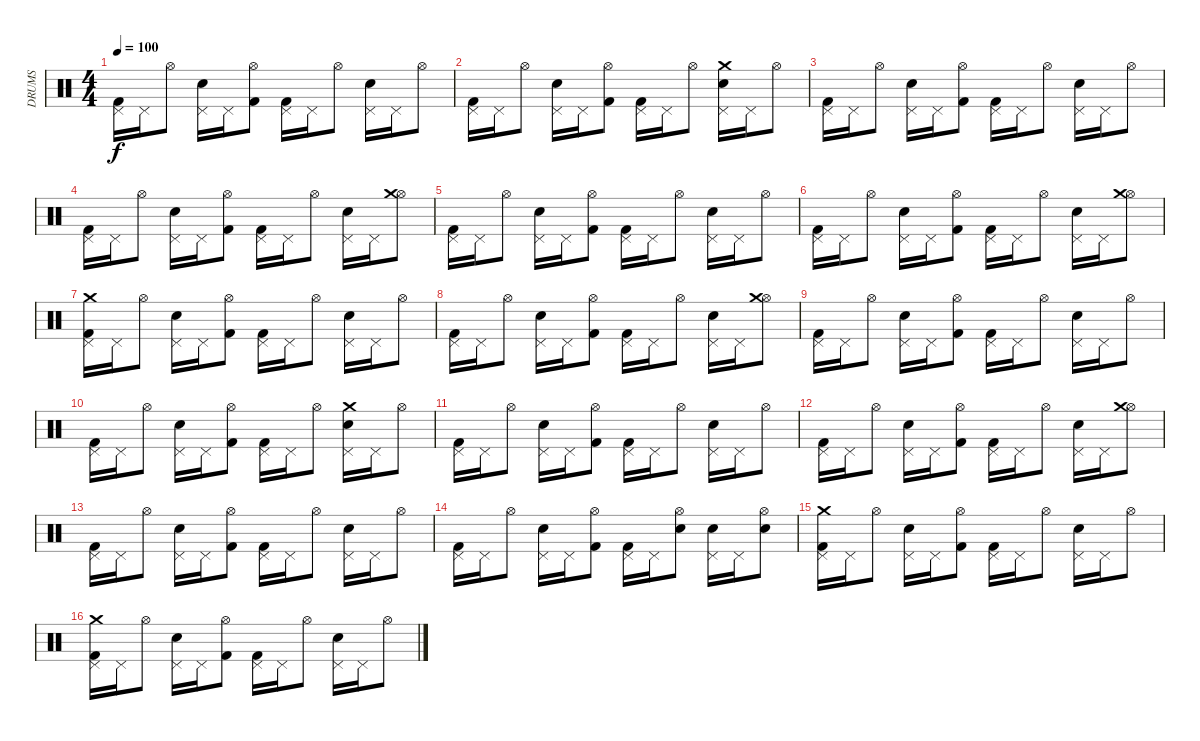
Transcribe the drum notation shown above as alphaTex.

\track ("DRUMS" "DRUMS") {instrument percussion}
\staff {score}
\articulation defaults
\ts (4 4)
\tempo 100
\clef neutral
\ks c
("Kick (hit) 2" "Pedal Hi-Hat (hit)").16{dy f} "Pedal Hi-Hat (hit)".16 "Hi-Hat (open)".8 ("Electric Snare (hit)" "Pedal Hi-Hat (hit)").16 "Pedal Hi-Hat (hit)".16 ("Kick (hit) 2" "Hi-Hat (open)").8 ("Kick (hit) 2" "Pedal Hi-Hat (hit)").16 "Pedal Hi-Hat (hit)".16 "Hi-Hat (open)".8 ("Electric Snare (hit)" "Pedal Hi-Hat (hit)").16 "Pedal Hi-Hat (hit)".16 "Hi-Hat (open)".8 |
("Kick (hit) 2" "Pedal Hi-Hat (hit)").16 "Pedal Hi-Hat (hit)".16 "Hi-Hat (open)".8 ("Electric Snare (hit)" "Pedal Hi-Hat (hit)").16 "Pedal Hi-Hat (hit)".16 ("Kick (hit) 2" "Hi-Hat (open)").8 ("Kick (hit) 2" "Pedal Hi-Hat (hit)").16 "Pedal Hi-Hat (hit)".16 "Hi-Hat (open)".8 ("Electric Snare (hit)" "Pedal Hi-Hat (hit)" "Crash medium (hit)").16 "Pedal Hi-Hat (hit)".16 "Hi-Hat (open)".8 |
("Kick (hit) 2" "Pedal Hi-Hat (hit)").16 "Pedal Hi-Hat (hit)".16 "Hi-Hat (open)".8 ("Electric Snare (hit)" "Pedal Hi-Hat (hit)").16 "Pedal Hi-Hat (hit)".16 ("Kick (hit) 2" "Hi-Hat (open)").8 ("Kick (hit) 2" "Pedal Hi-Hat (hit)").16 "Pedal Hi-Hat (hit)".16 "Hi-Hat (open)".8 ("Electric Snare (hit)" "Pedal Hi-Hat (hit)").16 "Pedal Hi-Hat (hit)".16 "Hi-Hat (open)".8 |
("Kick (hit) 2" "Pedal Hi-Hat (hit)").16 "Pedal Hi-Hat (hit)".16 "Hi-Hat (open)".8 ("Electric Snare (hit)" "Pedal Hi-Hat (hit)").16 "Pedal Hi-Hat (hit)".16 ("Kick (hit) 2" "Hi-Hat (open)").8 ("Kick (hit) 2" "Pedal Hi-Hat (hit)").16 "Pedal Hi-Hat (hit)".16 "Hi-Hat (open)".8 ("Electric Snare (hit)" "Pedal Hi-Hat (hit)").16 "Pedal Hi-Hat (hit)".16 ("Hi-Hat (open)" "Crash medium (hit)").8 |
("Kick (hit) 2" "Pedal Hi-Hat (hit)").16 "Pedal Hi-Hat (hit)".16 "Hi-Hat (open)".8 ("Electric Snare (hit)" "Pedal Hi-Hat (hit)").16 "Pedal Hi-Hat (hit)".16 ("Kick (hit) 2" "Hi-Hat (open)").8 ("Kick (hit) 2" "Pedal Hi-Hat (hit)").16 "Pedal Hi-Hat (hit)".16 "Hi-Hat (open)".8 ("Electric Snare (hit)" "Pedal Hi-Hat (hit)").16 "Pedal Hi-Hat (hit)".16 "Hi-Hat (open)".8 |
("Kick (hit) 2" "Pedal Hi-Hat (hit)").16 "Pedal Hi-Hat (hit)".16 "Hi-Hat (open)".8 ("Electric Snare (hit)" "Pedal Hi-Hat (hit)").16 "Pedal Hi-Hat (hit)".16 ("Kick (hit) 2" "Hi-Hat (open)").8 ("Kick (hit) 2" "Pedal Hi-Hat (hit)").16 "Pedal Hi-Hat (hit)".16 "Hi-Hat (open)".8 ("Electric Snare (hit)" "Pedal Hi-Hat (hit)").16 "Pedal Hi-Hat (hit)".16 ("Hi-Hat (open)" "Crash medium (hit)").8 |
("Kick (hit) 2" "Pedal Hi-Hat (hit)" "Crash medium (hit)").16 "Pedal Hi-Hat (hit)".16 "Hi-Hat (open)".8 ("Electric Snare (hit)" "Pedal Hi-Hat (hit)").16 "Pedal Hi-Hat (hit)".16 ("Kick (hit) 2" "Hi-Hat (open)").8 ("Kick (hit) 2" "Pedal Hi-Hat (hit)").16 "Pedal Hi-Hat (hit)".16 "Hi-Hat (open)".8 ("Electric Snare (hit)" "Pedal Hi-Hat (hit)").16 "Pedal Hi-Hat (hit)".16 "Hi-Hat (open)".8 |
("Kick (hit) 2" "Pedal Hi-Hat (hit)").16 "Pedal Hi-Hat (hit)".16 "Hi-Hat (open)".8 ("Electric Snare (hit)" "Pedal Hi-Hat (hit)").16 "Pedal Hi-Hat (hit)".16 ("Kick (hit) 2" "Hi-Hat (open)").8 ("Kick (hit) 2" "Pedal Hi-Hat (hit)").16 "Pedal Hi-Hat (hit)".16 "Hi-Hat (open)".8 ("Electric Snare (hit)" "Pedal Hi-Hat (hit)").16 "Pedal Hi-Hat (hit)".16 ("Hi-Hat (open)" "Crash medium (hit)").8 |
("Kick (hit) 2" "Pedal Hi-Hat (hit)").16 "Pedal Hi-Hat (hit)".16 "Hi-Hat (open)".8 ("Electric Snare (hit)" "Pedal Hi-Hat (hit)").16 "Pedal Hi-Hat (hit)".16 ("Kick (hit) 2" "Hi-Hat (open)").8 ("Kick (hit) 2" "Pedal Hi-Hat (hit)").16 "Pedal Hi-Hat (hit)".16 "Hi-Hat (open)".8 ("Electric Snare (hit)" "Pedal Hi-Hat (hit)").16 "Pedal Hi-Hat (hit)".16 "Hi-Hat (open)".8 |
("Kick (hit) 2" "Pedal Hi-Hat (hit)").16 "Pedal Hi-Hat (hit)".16 "Hi-Hat (open)".8 ("Electric Snare (hit)" "Pedal Hi-Hat (hit)").16 "Pedal Hi-Hat (hit)".16 ("Kick (hit) 2" "Hi-Hat (open)").8 ("Kick (hit) 2" "Pedal Hi-Hat (hit)").16 "Pedal Hi-Hat (hit)".16 "Hi-Hat (open)".8 ("Electric Snare (hit)" "Pedal Hi-Hat (hit)" "Crash medium (hit)").16 "Pedal Hi-Hat (hit)".16 "Hi-Hat (open)".8 |
("Kick (hit) 2" "Pedal Hi-Hat (hit)").16 "Pedal Hi-Hat (hit)".16 "Hi-Hat (open)".8 ("Electric Snare (hit)" "Pedal Hi-Hat (hit)").16 "Pedal Hi-Hat (hit)".16 ("Kick (hit) 2" "Hi-Hat (open)").8 ("Kick (hit) 2" "Pedal Hi-Hat (hit)").16 "Pedal Hi-Hat (hit)".16 "Hi-Hat (open)".8 ("Electric Snare (hit)" "Pedal Hi-Hat (hit)").16 "Pedal Hi-Hat (hit)".16 "Hi-Hat (open)".8 |
("Kick (hit) 2" "Pedal Hi-Hat (hit)").16 "Pedal Hi-Hat (hit)".16 "Hi-Hat (open)".8 ("Electric Snare (hit)" "Pedal Hi-Hat (hit)").16 "Pedal Hi-Hat (hit)".16 ("Kick (hit) 2" "Hi-Hat (open)").8 ("Kick (hit) 2" "Pedal Hi-Hat (hit)").16 "Pedal Hi-Hat (hit)".16 "Hi-Hat (open)".8 ("Electric Snare (hit)" "Pedal Hi-Hat (hit)").16 "Pedal Hi-Hat (hit)".16 ("Hi-Hat (open)" "Crash medium (hit)").8 |
("Kick (hit) 2" "Pedal Hi-Hat (hit)").16 "Pedal Hi-Hat (hit)".16 "Hi-Hat (open)".8 ("Electric Snare (hit)" "Pedal Hi-Hat (hit)").16 "Pedal Hi-Hat (hit)".16 ("Kick (hit) 2" "Hi-Hat (open)").8 ("Kick (hit) 2" "Pedal Hi-Hat (hit)").16 "Pedal Hi-Hat (hit)".16 "Hi-Hat (open)".8 ("Electric Snare (hit)" "Pedal Hi-Hat (hit)").16 "Pedal Hi-Hat (hit)".16 "Hi-Hat (open)".8 |
("Kick (hit) 2" "Pedal Hi-Hat (hit)").16 "Pedal Hi-Hat (hit)".16 "Hi-Hat (open)".8 ("Electric Snare (hit)" "Pedal Hi-Hat (hit)").16 "Pedal Hi-Hat (hit)".16 ("Kick (hit) 2" "Hi-Hat (open)").8 ("Kick (hit) 2" "Pedal Hi-Hat (hit)").16 "Pedal Hi-Hat (hit)".16 ("Electric Snare (hit)" "Hi-Hat (open)").8 ("Electric Snare (hit)" "Pedal Hi-Hat (hit)").16 "Pedal Hi-Hat (hit)".16 ("Electric Snare (hit)" "Hi-Hat (open)").8 |
("Kick (hit) 2" "Pedal Hi-Hat (hit)" "Crash medium (hit)").16 "Pedal Hi-Hat (hit)".16 "Hi-Hat (open)".8 ("Electric Snare (hit)" "Pedal Hi-Hat (hit)").16 "Pedal Hi-Hat (hit)".16 ("Kick (hit) 2" "Hi-Hat (open)").8 ("Kick (hit) 2" "Pedal Hi-Hat (hit)").16 "Pedal Hi-Hat (hit)".16 "Hi-Hat (open)".8 ("Electric Snare (hit)" "Pedal Hi-Hat (hit)").16 "Pedal Hi-Hat (hit)".16 "Hi-Hat (open)".8 |
("Kick (hit) 2" "Pedal Hi-Hat (hit)" "Crash medium (hit)").16 "Pedal Hi-Hat (hit)".16 "Hi-Hat (open)".8 ("Electric Snare (hit)" "Pedal Hi-Hat (hit)").16 "Pedal Hi-Hat (hit)".16 ("Kick (hit) 2" "Hi-Hat (open)").8 ("Kick (hit) 2" "Pedal Hi-Hat (hit)").16 "Pedal Hi-Hat (hit)".16 "Hi-Hat (open)".8 ("Electric Snare (hit)" "Pedal Hi-Hat (hit)").16 "Pedal Hi-Hat (hit)".16 "Hi-Hat (open)".8
